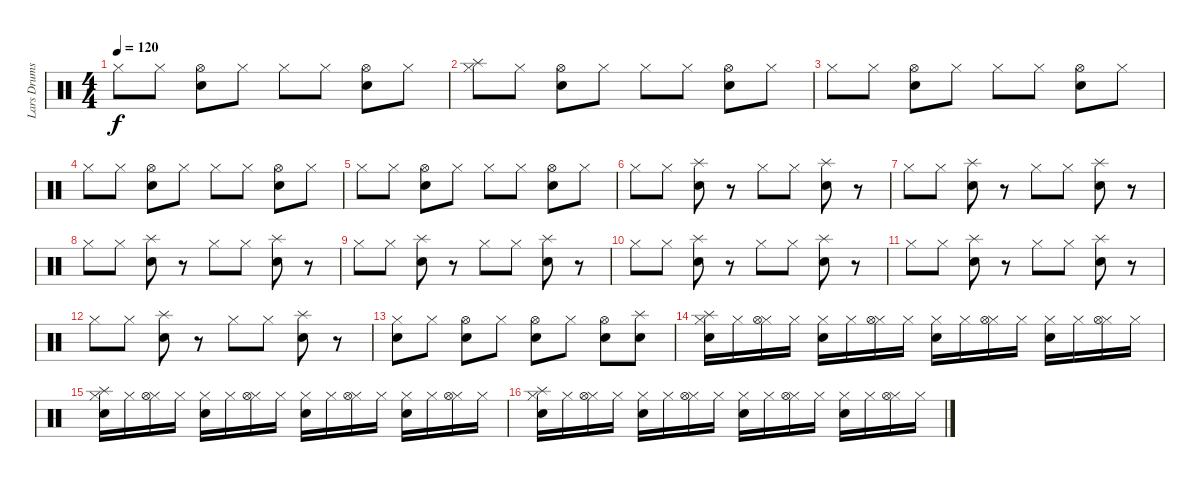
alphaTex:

\track ("Lars Drums" "Lars Drums") {instrument percussion}
\staff {score}
\articulation defaults
\ts (4 4)
\tempo 120
\clef neutral
\ks c "Hi-Hat (closed)".8{dy f} "Hi-Hat (closed)".8
("Snare (hit) 2" "Hi-Hat (open)").8 "Hi-Hat (closed)".8 "Hi-Hat (closed)".8 "Hi-Hat (closed)".8 ("Snare (hit) 2" "Hi-Hat (open)").8 "Hi-Hat (closed)".8 |
("Splash (hit)" "Hi-Hat (closed)").8 "Hi-Hat (closed)".8 ("Snare (hit) 2" "Hi-Hat (open)").8 "Hi-Hat (closed)".8 "Hi-Hat (closed)".8 "Hi-Hat (closed)".8 ("Snare (hit) 2" "Hi-Hat (open)").8 "Hi-Hat (closed)".8 |
"Hi-Hat (closed)".8 "Hi-Hat (closed)".8 ("Snare (hit) 2" "Hi-Hat (open)").8 "Hi-Hat (closed)".8 "Hi-Hat (closed)".8 "Hi-Hat (closed)".8 ("Snare (hit) 2" "Hi-Hat (open)").8 "Hi-Hat (closed)".8 |
"Hi-Hat (closed)".8 "Hi-Hat (closed)".8 ("Snare (hit) 2" "Hi-Hat (open)").8 "Hi-Hat (closed)".8 "Hi-Hat (closed)".8 "Hi-Hat (closed)".8 ("Snare (hit) 2" "Hi-Hat (open)").8 "Hi-Hat (closed)".8 |
"Hi-Hat (closed)".8 "Hi-Hat (closed)".8 ("Snare (hit) 2" "Hi-Hat (open)").8 "Hi-Hat (closed)".8 "Hi-Hat (closed)".8 "Hi-Hat (closed)".8 ("Snare (hit) 2" "Hi-Hat (open)").8 "Hi-Hat (closed)".8 |
"Hi-Hat (closed)".8 "Hi-Hat (closed)".8 ("Snare (hit) 2" "Splash (hit)").8 r.8 "Hi-Hat (closed)".8 "Hi-Hat (closed)".8 ("Snare (hit) 2" "Splash (hit)").8 r.8 |
"Hi-Hat (closed)".8 "Hi-Hat (closed)".8 ("Snare (hit) 2" "Splash (hit)").8 r.8 "Hi-Hat (closed)".8 "Hi-Hat (closed)".8 ("Snare (hit) 2" "Splash (hit)").8 r.8 |
"Hi-Hat (closed)".8 "Hi-Hat (closed)".8 ("Snare (hit) 2" "Splash (hit)").8 r.8 "Hi-Hat (closed)".8 "Hi-Hat (closed)".8 ("Snare (hit) 2" "Splash (hit)").8 r.8 |
"Hi-Hat (closed)".8 "Hi-Hat (closed)".8 ("Snare (hit) 2" "Splash (hit)").8 r.8 "Hi-Hat (closed)".8 "Hi-Hat (closed)".8 ("Snare (hit) 2" "Splash (hit)").8 r.8 |
"Hi-Hat (closed)".8 "Hi-Hat (closed)".8 ("Snare (hit) 2" "Splash (hit)").8 r.8 "Hi-Hat (closed)".8 "Hi-Hat (closed)".8 ("Snare (hit) 2" "Splash (hit)").8 r.8 |
"Hi-Hat (closed)".8 "Hi-Hat (closed)".8 ("Snare (hit) 2" "Splash (hit)").8 r.8 "Hi-Hat (closed)".8 "Hi-Hat (closed)".8 ("Snare (hit) 2" "Splash (hit)").8 r.8 |
"Hi-Hat (closed)".8 "Hi-Hat (closed)".8 ("Snare (hit) 2" "Splash (hit)").8 r.8 "Hi-Hat (closed)".8 "Hi-Hat (closed)".8 ("Snare (hit) 2" "Splash (hit)").8 r.8 |
("Snare (hit) 2" "Hi-Hat (closed)").8 "Hi-Hat (closed)".8 ("Snare (hit) 2" "Hi-Hat (open)").8 "Hi-Hat (closed)".8 ("Snare (hit) 2" "Hi-Hat (open)").8 "Hi-Hat (closed)".8 ("Snare (hit) 2" "Hi-Hat (open)").8 ("Snare (hit) 2" "Splash (hit)").8 |
("Hi-Hat (closed)" "Snare (hit) 2" "Splash (hit)").16 "Hi-Hat (closed)".16 ("Hi-Hat (closed)" "Hi-Hat (open)").16 "Hi-Hat (closed)".16 ("Hi-Hat (closed)" "Snare (hit) 2").16 "Hi-Hat (closed)".16 ("Hi-Hat (closed)" "Hi-Hat (open)").16 "Hi-Hat (closed)".16 ("Hi-Hat (closed)" "Snare (hit) 2").16 "Hi-Hat (closed)".16 ("Hi-Hat (closed)" "Hi-Hat (open)").16 "Hi-Hat (closed)".16 ("Hi-Hat (closed)" "Snare (hit) 2").16 "Hi-Hat (closed)".16 ("Hi-Hat (closed)" "Hi-Hat (open)").16 "Hi-Hat (closed)".16 |
("Hi-Hat (closed)" "Snare (hit) 2" "Splash (hit)").16 "Hi-Hat (closed)".16 ("Hi-Hat (closed)" "Hi-Hat (open)").16 "Hi-Hat (closed)".16 ("Hi-Hat (closed)" "Snare (hit) 2").16 "Hi-Hat (closed)".16 ("Hi-Hat (closed)" "Hi-Hat (open)").16 "Hi-Hat (closed)".16 ("Hi-Hat (closed)" "Snare (hit) 2").16 "Hi-Hat (closed)".16 ("Hi-Hat (closed)" "Hi-Hat (open)").16 "Hi-Hat (closed)".16 ("Hi-Hat (closed)" "Snare (hit) 2").16 "Hi-Hat (closed)".16 ("Hi-Hat (closed)" "Hi-Hat (open)").16 "Hi-Hat (closed)".16 |
("Hi-Hat (closed)" "Snare (hit) 2" "Splash (hit)").16 "Hi-Hat (closed)".16 ("Hi-Hat (closed)" "Hi-Hat (open)").16 "Hi-Hat (closed)".16 ("Hi-Hat (closed)" "Snare (hit) 2").16 "Hi-Hat (closed)".16 ("Hi-Hat (closed)" "Hi-Hat (open)").16 "Hi-Hat (closed)".16 ("Hi-Hat (closed)" "Snare (hit) 2").16 "Hi-Hat (closed)".16 ("Hi-Hat (closed)" "Hi-Hat (open)").16 "Hi-Hat (closed)".16 ("Hi-Hat (closed)" "Snare (hit) 2").16 "Hi-Hat (closed)".16 ("Hi-Hat (closed)" "Hi-Hat (open)").16 "Hi-Hat (closed)".16
